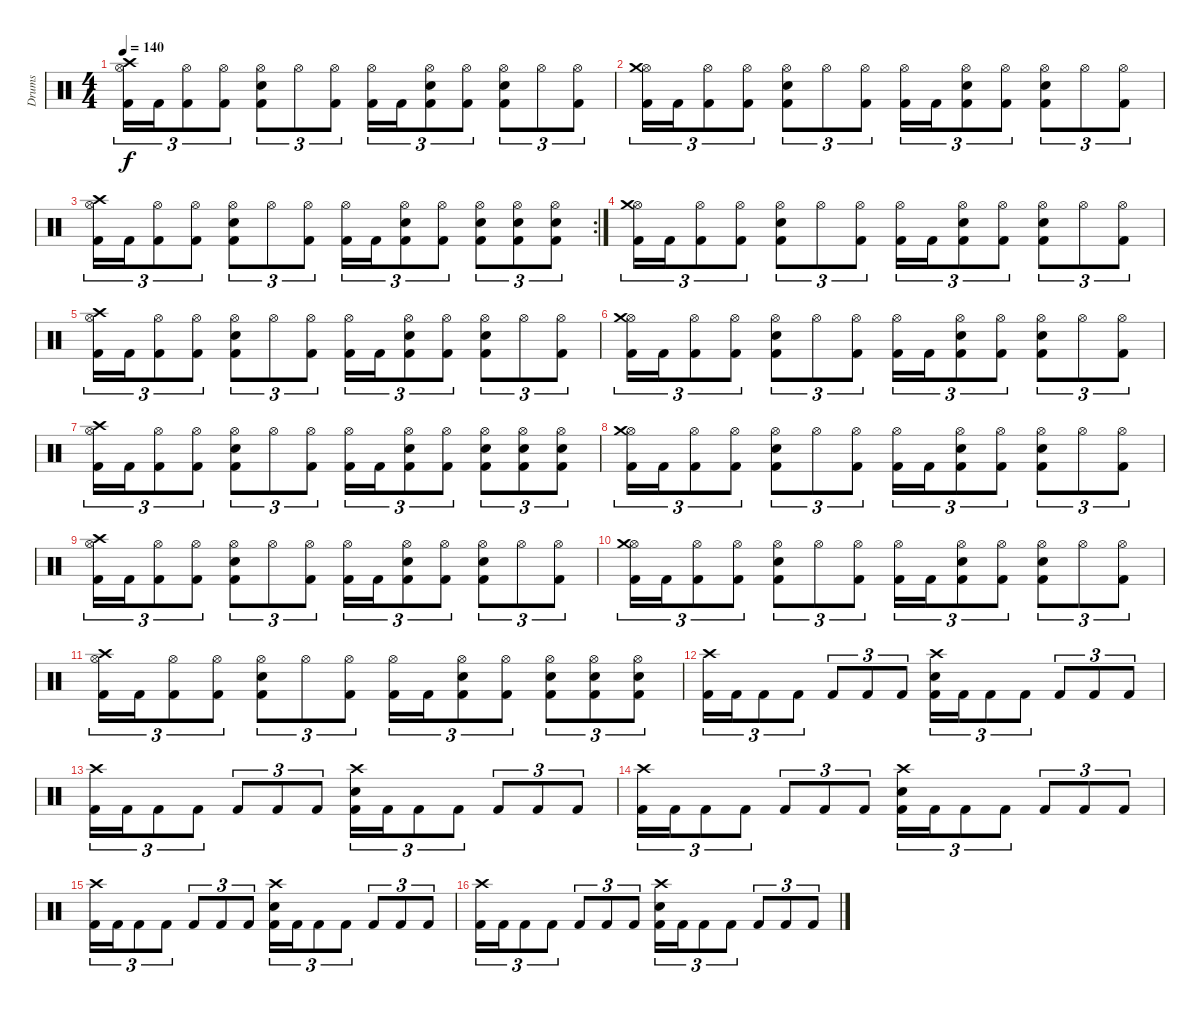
\track ("Drums" "Drums") {instrument percussion}
\staff {score}
\articulation defaults
\ts (4 4)
\tempo 140
\clef neutral
\ks c
("Hi-Hat (open)" "Crash high (hit)" "Kick (hit) 2").16{tu (3 2) dy f} "Kick (hit) 2".16{tu (3 2)} ("Hi-Hat (open)" "Kick (hit) 2").8{tu (3 2)} ("Hi-Hat (open)" "Kick (hit) 2").8{tu (3 2)} ("Hi-Hat (open)" "Snare (hit) 2" "Kick (hit) 2").8{tu (3 2)} "Hi-Hat (open)".8{tu (3 2)} ("Hi-Hat (open)" "Kick (hit) 2").8{tu (3 2)} ("Hi-Hat (open)" "Kick (hit) 2").16{tu (3 2)} "Kick (hit) 2".16{tu (3 2)} ("Hi-Hat (open)" "Snare (hit) 2" "Kick (hit) 2").8{tu (3 2)} ("Hi-Hat (open)" "Kick (hit) 2").8{tu (3 2)} ("Hi-Hat (open)" "Snare (hit) 2" "Kick (hit) 2").8{tu (3 2)} "Hi-Hat (open)".8{tu (3 2)} ("Hi-Hat (open)" "Kick (hit) 2").8{tu (3 2)} |
("Hi-Hat (open)" "Crash medium (hit)" "Kick (hit) 2").16{tu (3 2)} "Kick (hit) 2".16{tu (3 2)} ("Hi-Hat (open)" "Kick (hit) 2").8{tu (3 2)} ("Hi-Hat (open)" "Kick (hit) 2").8{tu (3 2)} ("Hi-Hat (open)" "Snare (hit) 2" "Kick (hit) 2").8{tu (3 2)} "Hi-Hat (open)".8{tu (3 2)} ("Hi-Hat (open)" "Kick (hit) 2").8{tu (3 2)} ("Hi-Hat (open)" "Kick (hit) 2").16{tu (3 2)} "Kick (hit) 2".16{tu (3 2)} ("Hi-Hat (open)" "Snare (hit) 2" "Kick (hit) 2").8{tu (3 2)} ("Hi-Hat (open)" "Kick (hit) 2").8{tu (3 2)} ("Hi-Hat (open)" "Snare (hit) 2" "Kick (hit) 2").8{tu (3 2)} "Hi-Hat (open)".8{tu (3 2)} ("Hi-Hat (open)" "Kick (hit) 2").8{tu (3 2)} |
\rc 2
("Hi-Hat (open)" "Crash high (hit)" "Kick (hit) 2").16{tu (3 2)} "Kick (hit) 2".16{tu (3 2)} ("Hi-Hat (open)" "Kick (hit) 2").8{tu (3 2)} ("Hi-Hat (open)" "Kick (hit) 2").8{tu (3 2)} ("Hi-Hat (open)" "Snare (hit) 2" "Kick (hit) 2").8{tu (3 2)} "Hi-Hat (open)".8{tu (3 2)} ("Hi-Hat (open)" "Kick (hit) 2").8{tu (3 2)} ("Hi-Hat (open)" "Kick (hit) 2").16{tu (3 2)} "Kick (hit) 2".16{tu (3 2)} ("Hi-Hat (open)" "Snare (hit) 2" "Kick (hit) 2").8{tu (3 2)} ("Hi-Hat (open)" "Kick (hit) 2").8{tu (3 2)} ("Hi-Hat (open)" "Snare (hit) 2" "Kick (hit) 2").8{tu (3 2)} ("Hi-Hat (open)" "Snare (hit) 2" "Kick (hit) 2").8{tu (3 2)} ("Hi-Hat (open)" "Snare (hit) 2" "Kick (hit) 2").8{tu (3 2)} |
("Hi-Hat (open)" "Crash medium (hit)" "Kick (hit) 2").16{tu (3 2)} "Kick (hit) 2".16{tu (3 2)} ("Hi-Hat (open)" "Kick (hit) 2").8{tu (3 2)} ("Hi-Hat (open)" "Kick (hit) 2").8{tu (3 2)} ("Hi-Hat (open)" "Snare (hit) 2" "Kick (hit) 2").8{tu (3 2)} "Hi-Hat (open)".8{tu (3 2)} ("Hi-Hat (open)" "Kick (hit) 2").8{tu (3 2)} ("Hi-Hat (open)" "Kick (hit) 2").16{tu (3 2)} "Kick (hit) 2".16{tu (3 2)} ("Hi-Hat (open)" "Snare (hit) 2" "Kick (hit) 2").8{tu (3 2)} ("Hi-Hat (open)" "Kick (hit) 2").8{tu (3 2)} ("Hi-Hat (open)" "Snare (hit) 2" "Kick (hit) 2").8{tu (3 2)} "Hi-Hat (open)".8{tu (3 2)} ("Hi-Hat (open)" "Kick (hit) 2").8{tu (3 2)} |
("Hi-Hat (open)" "Crash high (hit)" "Kick (hit) 2").16{tu (3 2)} "Kick (hit) 2".16{tu (3 2)} ("Hi-Hat (open)" "Kick (hit) 2").8{tu (3 2)} ("Hi-Hat (open)" "Kick (hit) 2").8{tu (3 2)} ("Hi-Hat (open)" "Snare (hit) 2" "Kick (hit) 2").8{tu (3 2)} "Hi-Hat (open)".8{tu (3 2)} ("Hi-Hat (open)" "Kick (hit) 2").8{tu (3 2)} ("Hi-Hat (open)" "Kick (hit) 2").16{tu (3 2)} "Kick (hit) 2".16{tu (3 2)} ("Hi-Hat (open)" "Snare (hit) 2" "Kick (hit) 2").8{tu (3 2)} ("Hi-Hat (open)" "Kick (hit) 2").8{tu (3 2)} ("Hi-Hat (open)" "Snare (hit) 2" "Kick (hit) 2").8{tu (3 2)} "Hi-Hat (open)".8{tu (3 2)} ("Hi-Hat (open)" "Kick (hit) 2").8{tu (3 2)} |
("Hi-Hat (open)" "Crash medium (hit)" "Kick (hit) 2").16{tu (3 2)} "Kick (hit) 2".16{tu (3 2)} ("Hi-Hat (open)" "Kick (hit) 2").8{tu (3 2)} ("Hi-Hat (open)" "Kick (hit) 2").8{tu (3 2)} ("Hi-Hat (open)" "Snare (hit) 2" "Kick (hit) 2").8{tu (3 2)} "Hi-Hat (open)".8{tu (3 2)} ("Hi-Hat (open)" "Kick (hit) 2").8{tu (3 2)} ("Hi-Hat (open)" "Kick (hit) 2").16{tu (3 2)} "Kick (hit) 2".16{tu (3 2)} ("Hi-Hat (open)" "Snare (hit) 2" "Kick (hit) 2").8{tu (3 2)} ("Hi-Hat (open)" "Kick (hit) 2").8{tu (3 2)} ("Hi-Hat (open)" "Snare (hit) 2" "Kick (hit) 2").8{tu (3 2)} "Hi-Hat (open)".8{tu (3 2)} ("Hi-Hat (open)" "Kick (hit) 2").8{tu (3 2)} |
("Hi-Hat (open)" "Crash high (hit)" "Kick (hit) 2").16{tu (3 2)} "Kick (hit) 2".16{tu (3 2)} ("Hi-Hat (open)" "Kick (hit) 2").8{tu (3 2)} ("Hi-Hat (open)" "Kick (hit) 2").8{tu (3 2)} ("Hi-Hat (open)" "Snare (hit) 2" "Kick (hit) 2").8{tu (3 2)} "Hi-Hat (open)".8{tu (3 2)} ("Hi-Hat (open)" "Kick (hit) 2").8{tu (3 2)} ("Hi-Hat (open)" "Kick (hit) 2").16{tu (3 2)} "Kick (hit) 2".16{tu (3 2)} ("Hi-Hat (open)" "Snare (hit) 2" "Kick (hit) 2").8{tu (3 2)} ("Hi-Hat (open)" "Kick (hit) 2").8{tu (3 2)} ("Hi-Hat (open)" "Snare (hit) 2" "Kick (hit) 2").8{tu (3 2)} ("Hi-Hat (open)" "Snare (hit) 2" "Kick (hit) 2").8{tu (3 2)} ("Hi-Hat (open)" "Snare (hit) 2" "Kick (hit) 2").8{tu (3 2)} |
("Hi-Hat (open)" "Crash medium (hit)" "Kick (hit) 2").16{tu (3 2)} "Kick (hit) 2".16{tu (3 2)} ("Hi-Hat (open)" "Kick (hit) 2").8{tu (3 2)} ("Hi-Hat (open)" "Kick (hit) 2").8{tu (3 2)} ("Hi-Hat (open)" "Snare (hit) 2" "Kick (hit) 2").8{tu (3 2)} "Hi-Hat (open)".8{tu (3 2)} ("Hi-Hat (open)" "Kick (hit) 2").8{tu (3 2)} ("Hi-Hat (open)" "Kick (hit) 2").16{tu (3 2)} "Kick (hit) 2".16{tu (3 2)} ("Hi-Hat (open)" "Snare (hit) 2" "Kick (hit) 2").8{tu (3 2)} ("Hi-Hat (open)" "Kick (hit) 2").8{tu (3 2)} ("Hi-Hat (open)" "Snare (hit) 2" "Kick (hit) 2").8{tu (3 2)} "Hi-Hat (open)".8{tu (3 2)} ("Hi-Hat (open)" "Kick (hit) 2").8{tu (3 2)} |
("Hi-Hat (open)" "Crash high (hit)" "Kick (hit) 2").16{tu (3 2)} "Kick (hit) 2".16{tu (3 2)} ("Hi-Hat (open)" "Kick (hit) 2").8{tu (3 2)} ("Hi-Hat (open)" "Kick (hit) 2").8{tu (3 2)} ("Hi-Hat (open)" "Snare (hit) 2" "Kick (hit) 2").8{tu (3 2)} "Hi-Hat (open)".8{tu (3 2)} ("Hi-Hat (open)" "Kick (hit) 2").8{tu (3 2)} ("Hi-Hat (open)" "Kick (hit) 2").16{tu (3 2)} "Kick (hit) 2".16{tu (3 2)} ("Hi-Hat (open)" "Snare (hit) 2" "Kick (hit) 2").8{tu (3 2)} ("Hi-Hat (open)" "Kick (hit) 2").8{tu (3 2)} ("Hi-Hat (open)" "Snare (hit) 2" "Kick (hit) 2").8{tu (3 2)} "Hi-Hat (open)".8{tu (3 2)} ("Hi-Hat (open)" "Kick (hit) 2").8{tu (3 2)} |
("Hi-Hat (open)" "Crash medium (hit)" "Kick (hit) 2").16{tu (3 2)} "Kick (hit) 2".16{tu (3 2)} ("Hi-Hat (open)" "Kick (hit) 2").8{tu (3 2)} ("Hi-Hat (open)" "Kick (hit) 2").8{tu (3 2)} ("Hi-Hat (open)" "Snare (hit) 2" "Kick (hit) 2").8{tu (3 2)} "Hi-Hat (open)".8{tu (3 2)} ("Hi-Hat (open)" "Kick (hit) 2").8{tu (3 2)} ("Hi-Hat (open)" "Kick (hit) 2").16{tu (3 2)} "Kick (hit) 2".16{tu (3 2)} ("Hi-Hat (open)" "Snare (hit) 2" "Kick (hit) 2").8{tu (3 2)} ("Hi-Hat (open)" "Kick (hit) 2").8{tu (3 2)} ("Hi-Hat (open)" "Snare (hit) 2" "Kick (hit) 2").8{tu (3 2)} "Hi-Hat (open)".8{tu (3 2)} ("Hi-Hat (open)" "Kick (hit) 2").8{tu (3 2)} |
("Hi-Hat (open)" "Crash high (hit)" "Kick (hit) 2").16{tu (3 2)} "Kick (hit) 2".16{tu (3 2)} ("Hi-Hat (open)" "Kick (hit) 2").8{tu (3 2)} ("Hi-Hat (open)" "Kick (hit) 2").8{tu (3 2)} ("Hi-Hat (open)" "Snare (hit) 2" "Kick (hit) 2").8{tu (3 2)} "Hi-Hat (open)".8{tu (3 2)} ("Hi-Hat (open)" "Kick (hit) 2").8{tu (3 2)} ("Hi-Hat (open)" "Kick (hit) 2").16{tu (3 2)} "Kick (hit) 2".16{tu (3 2)} ("Hi-Hat (open)" "Snare (hit) 2" "Kick (hit) 2").8{tu (3 2)} ("Hi-Hat (open)" "Kick (hit) 2").8{tu (3 2)} ("Hi-Hat (open)" "Snare (hit) 2" "Kick (hit) 2").8{tu (3 2)} ("Hi-Hat (open)" "Snare (hit) 2" "Kick (hit) 2").8{tu (3 2)} ("Hi-Hat (open)" "Snare (hit) 2" "Kick (hit) 2").8{tu (3 2)} |
("Crash high (hit)" "Kick (hit) 2").16{tu (3 2)} "Kick (hit) 2".16{tu (3 2)} "Kick (hit) 2".8{tu (3 2)} "Kick (hit) 2".8{tu (3 2)} "Kick (hit) 2".8{tu (3 2)} "Kick (hit) 2".8{tu (3 2)} "Kick (hit) 2".8{tu (3 2)} ("Crash high (hit)" "Snare (hit) 2" "Kick (hit) 2").16{tu (3 2)} "Kick (hit) 2".16{tu (3 2)} "Kick (hit) 2".8{tu (3 2)} "Kick (hit) 2".8{tu (3 2)} "Kick (hit) 2".8{tu (3 2)} "Kick (hit) 2".8{tu (3 2)} "Kick (hit) 2".8{tu (3 2)} |
("Crash high (hit)" "Kick (hit) 2").16{tu (3 2)} "Kick (hit) 2".16{tu (3 2)} "Kick (hit) 2".8{tu (3 2)} "Kick (hit) 2".8{tu (3 2)} "Kick (hit) 2".8{tu (3 2)} "Kick (hit) 2".8{tu (3 2)} "Kick (hit) 2".8{tu (3 2)} ("Crash high (hit)" "Snare (hit) 2" "Kick (hit) 2").16{tu (3 2)} "Kick (hit) 2".16{tu (3 2)} "Kick (hit) 2".8{tu (3 2)} "Kick (hit) 2".8{tu (3 2)} "Kick (hit) 2".8{tu (3 2)} "Kick (hit) 2".8{tu (3 2)} "Kick (hit) 2".8{tu (3 2)} |
("Crash high (hit)" "Kick (hit) 2").16{tu (3 2)} "Kick (hit) 2".16{tu (3 2)} "Kick (hit) 2".8{tu (3 2)} "Kick (hit) 2".8{tu (3 2)} "Kick (hit) 2".8{tu (3 2)} "Kick (hit) 2".8{tu (3 2)} "Kick (hit) 2".8{tu (3 2)} ("Crash high (hit)" "Snare (hit) 2" "Kick (hit) 2").16{tu (3 2)} "Kick (hit) 2".16{tu (3 2)} "Kick (hit) 2".8{tu (3 2)} "Kick (hit) 2".8{tu (3 2)} "Kick (hit) 2".8{tu (3 2)} "Kick (hit) 2".8{tu (3 2)} "Kick (hit) 2".8{tu (3 2)} |
("Crash high (hit)" "Kick (hit) 2").16{tu (3 2)} "Kick (hit) 2".16{tu (3 2)} "Kick (hit) 2".8{tu (3 2)} "Kick (hit) 2".8{tu (3 2)} "Kick (hit) 2".8{tu (3 2)} "Kick (hit) 2".8{tu (3 2)} "Kick (hit) 2".8{tu (3 2)} ("Crash high (hit)" "Snare (hit) 2" "Kick (hit) 2").16{tu (3 2)} "Kick (hit) 2".16{tu (3 2)} "Kick (hit) 2".8{tu (3 2)} "Kick (hit) 2".8{tu (3 2)} "Kick (hit) 2".8{tu (3 2)} "Kick (hit) 2".8{tu (3 2)} "Kick (hit) 2".8{tu (3 2)} |
("Crash high (hit)" "Kick (hit) 2").16{tu (3 2)} "Kick (hit) 2".16{tu (3 2)} "Kick (hit) 2".8{tu (3 2)} "Kick (hit) 2".8{tu (3 2)} "Kick (hit) 2".8{tu (3 2)} "Kick (hit) 2".8{tu (3 2)} "Kick (hit) 2".8{tu (3 2)} ("Crash high (hit)" "Snare (hit) 2" "Kick (hit) 2").16{tu (3 2)} "Kick (hit) 2".16{tu (3 2)} "Kick (hit) 2".8{tu (3 2)} "Kick (hit) 2".8{tu (3 2)} "Kick (hit) 2".8{tu (3 2)} "Kick (hit) 2".8{tu (3 2)} "Kick (hit) 2".8{tu (3 2)}
